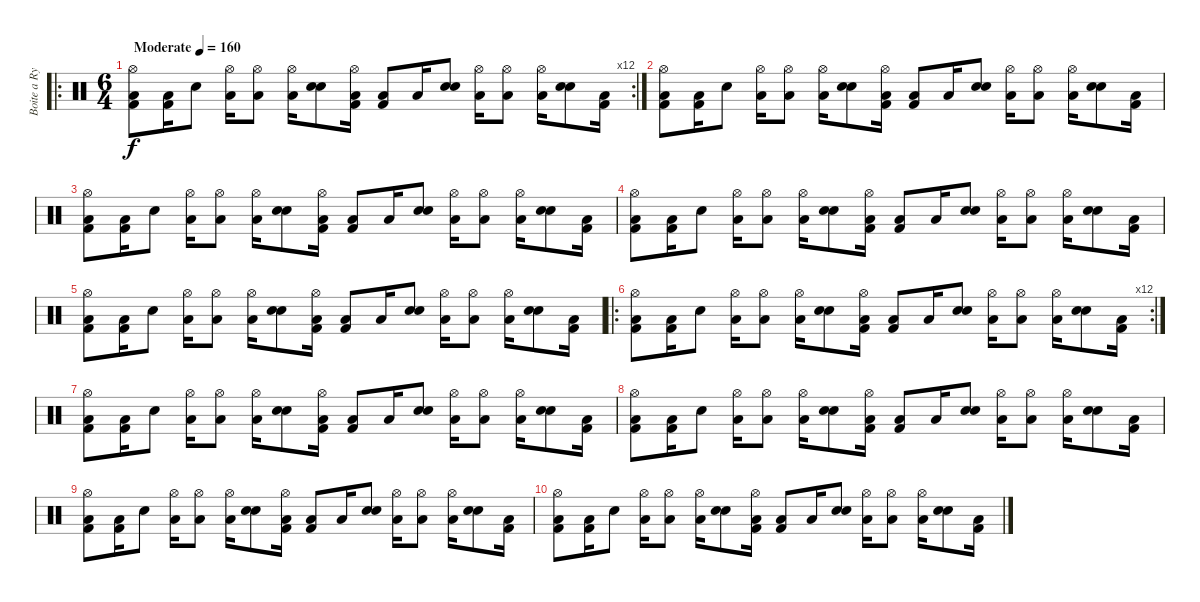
\track ("Boite a Rythme" "Boite a Ry") {instrument percussion}
\staff {score}
\articulation defaults
\ro
\rc 12
\ts (6 4)
\tempo (160 "Moderate")
\clef neutral
\ks c
("Hi-Hat (open)" "Kick (hit) 2" "Low Floor Tom (hit)").8{dy f} ("Kick (hit) 2" "Low Floor Tom (hit)").16 "Electric Snare (hit)".8 ("Hi-Hat (open)" "Low Floor Tom (hit)").16 ("Hi-Hat (open)" "Low Floor Tom (hit)").8 ("Hi-Hat (open)" "Low Floor Tom (hit)").16 ("Snare (hit) 2" "Electric Snare (hit)").8 ("Hi-Hat (open)" "Kick (hit) 2" "Low Floor Tom (hit)").16 ("Kick (hit) 2" "Low Floor Tom (hit)").8 "Low Floor Tom (hit)".16 ("Snare (hit) 2" "Electric Snare (hit)").8 ("Hi-Hat (open)" "Low Floor Tom (hit)").16 ("Hi-Hat (open)" "Low Floor Tom (hit)").8 ("Hi-Hat (open)" "Low Floor Tom (hit)").16 ("Snare (hit) 2" "Electric Snare (hit)").8 ("Kick (hit) 2" "Low Floor Tom (hit)").16 |
("Hi-Hat (open)" "Kick (hit) 2" "Low Floor Tom (hit)").8 ("Kick (hit) 2" "Low Floor Tom (hit)").16 "Electric Snare (hit)".8 ("Hi-Hat (open)" "Low Floor Tom (hit)").16 ("Hi-Hat (open)" "Low Floor Tom (hit)").8 ("Hi-Hat (open)" "Low Floor Tom (hit)").16 ("Snare (hit) 2" "Electric Snare (hit)").8 ("Hi-Hat (open)" "Kick (hit) 2" "Low Floor Tom (hit)").16 ("Kick (hit) 2" "Low Floor Tom (hit)").8 "Low Floor Tom (hit)".16 ("Snare (hit) 2" "Electric Snare (hit)").8 ("Hi-Hat (open)" "Low Floor Tom (hit)").16 ("Hi-Hat (open)" "Low Floor Tom (hit)").8 ("Hi-Hat (open)" "Low Floor Tom (hit)").16 ("Snare (hit) 2" "Electric Snare (hit)").8 ("Kick (hit) 2" "Low Floor Tom (hit)").16 |
("Hi-Hat (open)" "Kick (hit) 2" "Low Floor Tom (hit)").8 ("Kick (hit) 2" "Low Floor Tom (hit)").16 "Electric Snare (hit)".8 ("Hi-Hat (open)" "Low Floor Tom (hit)").16 ("Hi-Hat (open)" "Low Floor Tom (hit)").8 ("Hi-Hat (open)" "Low Floor Tom (hit)").16 ("Snare (hit) 2" "Electric Snare (hit)").8 ("Hi-Hat (open)" "Kick (hit) 2" "Low Floor Tom (hit)").16 ("Kick (hit) 2" "Low Floor Tom (hit)").8 "Low Floor Tom (hit)".16 ("Snare (hit) 2" "Electric Snare (hit)").8 ("Hi-Hat (open)" "Low Floor Tom (hit)").16 ("Hi-Hat (open)" "Low Floor Tom (hit)").8 ("Hi-Hat (open)" "Low Floor Tom (hit)").16 ("Snare (hit) 2" "Electric Snare (hit)").8 ("Kick (hit) 2" "Low Floor Tom (hit)").16 |
("Hi-Hat (open)" "Kick (hit) 2" "Low Floor Tom (hit)").8 ("Kick (hit) 2" "Low Floor Tom (hit)").16 "Electric Snare (hit)".8 ("Hi-Hat (open)" "Low Floor Tom (hit)").16 ("Hi-Hat (open)" "Low Floor Tom (hit)").8 ("Hi-Hat (open)" "Low Floor Tom (hit)").16 ("Snare (hit) 2" "Electric Snare (hit)").8 ("Hi-Hat (open)" "Kick (hit) 2" "Low Floor Tom (hit)").16 ("Kick (hit) 2" "Low Floor Tom (hit)").8 "Low Floor Tom (hit)".16 ("Snare (hit) 2" "Electric Snare (hit)").8 ("Hi-Hat (open)" "Low Floor Tom (hit)").16 ("Hi-Hat (open)" "Low Floor Tom (hit)").8 ("Hi-Hat (open)" "Low Floor Tom (hit)").16 ("Snare (hit) 2" "Electric Snare (hit)").8 ("Kick (hit) 2" "Low Floor Tom (hit)").16 |
("Hi-Hat (open)" "Kick (hit) 2" "Low Floor Tom (hit)").8 ("Kick (hit) 2" "Low Floor Tom (hit)").16 "Electric Snare (hit)".8 ("Hi-Hat (open)" "Low Floor Tom (hit)").16 ("Hi-Hat (open)" "Low Floor Tom (hit)").8 ("Hi-Hat (open)" "Low Floor Tom (hit)").16 ("Snare (hit) 2" "Electric Snare (hit)").8 ("Hi-Hat (open)" "Kick (hit) 2" "Low Floor Tom (hit)").16 ("Kick (hit) 2" "Low Floor Tom (hit)").8 "Low Floor Tom (hit)".16 ("Snare (hit) 2" "Electric Snare (hit)").8 ("Hi-Hat (open)" "Low Floor Tom (hit)").16 ("Hi-Hat (open)" "Low Floor Tom (hit)").8 ("Hi-Hat (open)" "Low Floor Tom (hit)").16 ("Snare (hit) 2" "Electric Snare (hit)").8 ("Kick (hit) 2" "Low Floor Tom (hit)").16 |
\ro
\rc 12
("Hi-Hat (open)" "Kick (hit) 2" "Low Floor Tom (hit)").8 ("Kick (hit) 2" "Low Floor Tom (hit)").16 "Electric Snare (hit)".8 ("Hi-Hat (open)" "Low Floor Tom (hit)").16 ("Hi-Hat (open)" "Low Floor Tom (hit)").8 ("Hi-Hat (open)" "Low Floor Tom (hit)").16 ("Snare (hit) 2" "Electric Snare (hit)").8 ("Hi-Hat (open)" "Kick (hit) 2" "Low Floor Tom (hit)").16 ("Kick (hit) 2" "Low Floor Tom (hit)").8 "Low Floor Tom (hit)".16 ("Snare (hit) 2" "Electric Snare (hit)").8 ("Hi-Hat (open)" "Low Floor Tom (hit)").16 ("Hi-Hat (open)" "Low Floor Tom (hit)").8 ("Hi-Hat (open)" "Low Floor Tom (hit)").16 ("Snare (hit) 2" "Electric Snare (hit)").8 ("Kick (hit) 2" "Low Floor Tom (hit)").16 |
("Hi-Hat (open)" "Kick (hit) 2" "Low Floor Tom (hit)").8 ("Kick (hit) 2" "Low Floor Tom (hit)").16 "Electric Snare (hit)".8 ("Hi-Hat (open)" "Low Floor Tom (hit)").16 ("Hi-Hat (open)" "Low Floor Tom (hit)").8 ("Hi-Hat (open)" "Low Floor Tom (hit)").16 ("Snare (hit) 2" "Electric Snare (hit)").8 ("Hi-Hat (open)" "Kick (hit) 2" "Low Floor Tom (hit)").16 ("Kick (hit) 2" "Low Floor Tom (hit)").8 "Low Floor Tom (hit)".16 ("Snare (hit) 2" "Electric Snare (hit)").8 ("Hi-Hat (open)" "Low Floor Tom (hit)").16 ("Hi-Hat (open)" "Low Floor Tom (hit)").8 ("Hi-Hat (open)" "Low Floor Tom (hit)").16 ("Snare (hit) 2" "Electric Snare (hit)").8 ("Kick (hit) 2" "Low Floor Tom (hit)").16 |
("Hi-Hat (open)" "Kick (hit) 2" "Low Floor Tom (hit)").8 ("Kick (hit) 2" "Low Floor Tom (hit)").16 "Electric Snare (hit)".8 ("Hi-Hat (open)" "Low Floor Tom (hit)").16 ("Hi-Hat (open)" "Low Floor Tom (hit)").8 ("Hi-Hat (open)" "Low Floor Tom (hit)").16 ("Snare (hit) 2" "Electric Snare (hit)").8 ("Hi-Hat (open)" "Kick (hit) 2" "Low Floor Tom (hit)").16 ("Kick (hit) 2" "Low Floor Tom (hit)").8 "Low Floor Tom (hit)".16 ("Snare (hit) 2" "Electric Snare (hit)").8 ("Hi-Hat (open)" "Low Floor Tom (hit)").16 ("Hi-Hat (open)" "Low Floor Tom (hit)").8 ("Hi-Hat (open)" "Low Floor Tom (hit)").16 ("Snare (hit) 2" "Electric Snare (hit)").8 ("Kick (hit) 2" "Low Floor Tom (hit)").16 |
("Hi-Hat (open)" "Kick (hit) 2" "Low Floor Tom (hit)").8 ("Kick (hit) 2" "Low Floor Tom (hit)").16 "Electric Snare (hit)".8 ("Hi-Hat (open)" "Low Floor Tom (hit)").16 ("Hi-Hat (open)" "Low Floor Tom (hit)").8 ("Hi-Hat (open)" "Low Floor Tom (hit)").16 ("Snare (hit) 2" "Electric Snare (hit)").8 ("Hi-Hat (open)" "Kick (hit) 2" "Low Floor Tom (hit)").16 ("Kick (hit) 2" "Low Floor Tom (hit)").8 "Low Floor Tom (hit)".16 ("Snare (hit) 2" "Electric Snare (hit)").8 ("Hi-Hat (open)" "Low Floor Tom (hit)").16 ("Hi-Hat (open)" "Low Floor Tom (hit)").8 ("Hi-Hat (open)" "Low Floor Tom (hit)").16 ("Snare (hit) 2" "Electric Snare (hit)").8 ("Kick (hit) 2" "Low Floor Tom (hit)").16 |
("Hi-Hat (open)" "Kick (hit) 2" "Low Floor Tom (hit)").8 ("Kick (hit) 2" "Low Floor Tom (hit)").16 "Electric Snare (hit)".8 ("Hi-Hat (open)" "Low Floor Tom (hit)").16 ("Hi-Hat (open)" "Low Floor Tom (hit)").8 ("Hi-Hat (open)" "Low Floor Tom (hit)").16 ("Snare (hit) 2" "Electric Snare (hit)").8 ("Hi-Hat (open)" "Kick (hit) 2" "Low Floor Tom (hit)").16 ("Kick (hit) 2" "Low Floor Tom (hit)").8 "Low Floor Tom (hit)".16 ("Snare (hit) 2" "Electric Snare (hit)").8 ("Hi-Hat (open)" "Low Floor Tom (hit)").16 ("Hi-Hat (open)" "Low Floor Tom (hit)").8 ("Hi-Hat (open)" "Low Floor Tom (hit)").16 ("Snare (hit) 2" "Electric Snare (hit)").8 ("Kick (hit) 2" "Low Floor Tom (hit)").16
